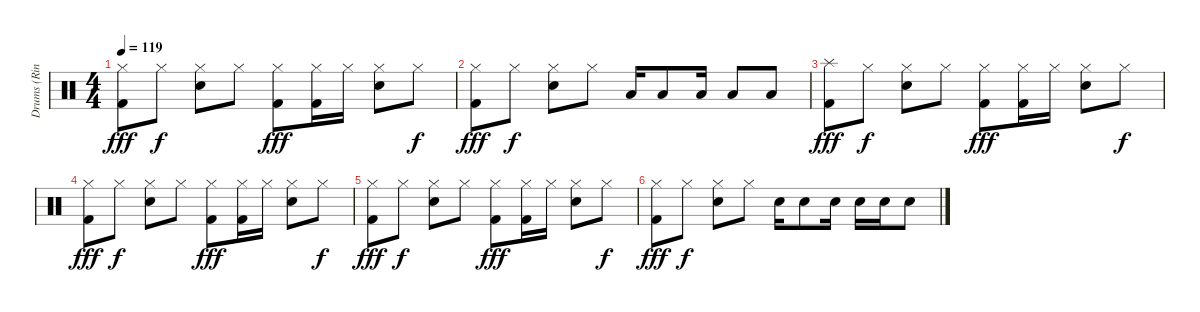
\track ("Drums (Ringo Starr)" "Drums (Rin") {instrument percussion}
\staff {score}
\articulation defaults
\ts (4 4)
\tempo 119
\clef neutral
\ks c
("Hi-Hat (closed)" "Kick (hit) 2").8{dy fff} "Hi-Hat (closed)".8{dy f} ("Hi-Hat (closed)" "Snare (hit) 2").8 "Hi-Hat (closed)".8 ("Hi-Hat (closed)" "Kick (hit) 2").8{dy fff} ("Hi-Hat (closed)" "Kick (hit) 2").16 "Hi-Hat (closed)".16 ("Hi-Hat (closed)" "Snare (hit) 2").8 "Hi-Hat (closed)".8{dy f} |
("Hi-Hat (closed)" "Kick (hit) 2").8{dy fff} "Hi-Hat (closed)".8{dy f} ("Hi-Hat (closed)" "Snare (hit) 2").8 "Hi-Hat (closed)".8 "Low Floor Tom (hit)".16 "Low Floor Tom (hit)".8 "Low Floor Tom (hit)".16 "Low Floor Tom (hit)".8 "Low Floor Tom (hit)".8 |
("Splash (hit)" "Kick (hit) 2").8{dy fff} "Hi-Hat (closed)".8{dy f} ("Hi-Hat (closed)" "Snare (hit) 2").8 "Hi-Hat (closed)".8 ("Hi-Hat (closed)" "Kick (hit) 2").8{dy fff} ("Hi-Hat (closed)" "Kick (hit) 2").16 "Hi-Hat (closed)".16 ("Hi-Hat (closed)" "Snare (hit) 2").8 "Hi-Hat (closed)".8{dy f} |
("Hi-Hat (closed)" "Kick (hit) 2").8{dy fff} "Hi-Hat (closed)".8{dy f} ("Hi-Hat (closed)" "Snare (hit) 2").8 "Hi-Hat (closed)".8 ("Hi-Hat (closed)" "Kick (hit) 2").8{dy fff} ("Hi-Hat (closed)" "Kick (hit) 2").16 "Hi-Hat (closed)".16 ("Hi-Hat (closed)" "Snare (hit) 2").8 "Hi-Hat (closed)".8{dy f} |
("Hi-Hat (closed)" "Kick (hit) 2").8{dy fff} "Hi-Hat (closed)".8{dy f} ("Hi-Hat (closed)" "Snare (hit) 2").8 "Hi-Hat (closed)".8 ("Hi-Hat (closed)" "Kick (hit) 2").8{dy fff} ("Hi-Hat (closed)" "Kick (hit) 2").16 "Hi-Hat (closed)".16 ("Hi-Hat (closed)" "Snare (hit) 2").8 "Hi-Hat (closed)".8{dy f} |
("Hi-Hat (closed)" "Kick (hit) 2").8{dy fff} "Hi-Hat (closed)".8{dy f} ("Hi-Hat (closed)" "Snare (hit) 2").8 "Hi-Hat (closed)".8 "Snare (hit) 2".16 "Snare (hit) 2".8 "Snare (hit) 2".16 "Snare (hit) 2".16 "Snare (hit) 2".16 "Snare (hit) 2".8
